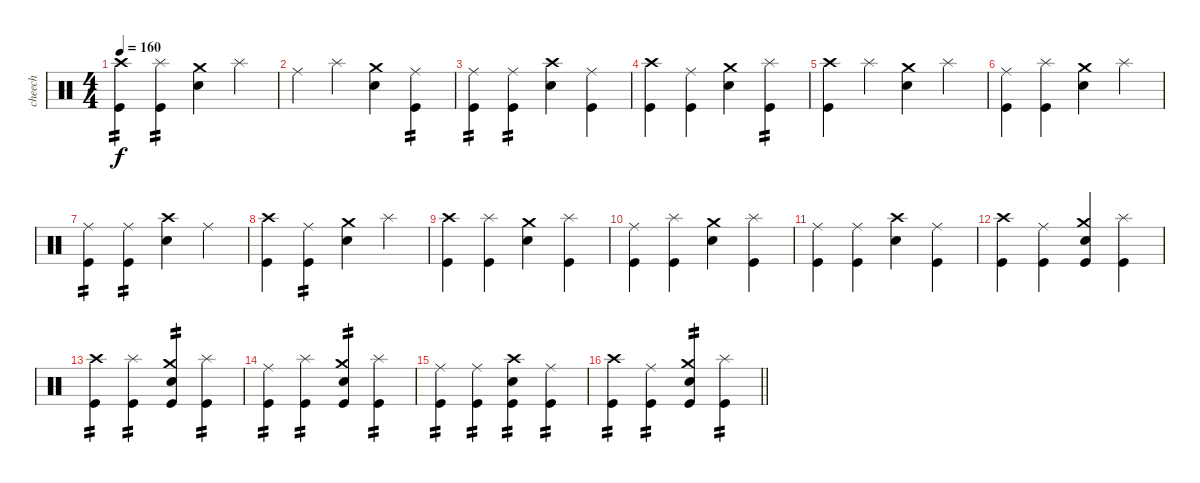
\track ("cheech" "cheech") {instrument percussion}
\staff {score}
\articulation defaults
\ts (4 4)
\tempo 160
\clef neutral
\ks c
("Crash high (hit)" "Kick (hit)").4{tp 2 dy f} ("Splash (hit)" "Kick (hit)").4{tp 2} ("Crash medium (hit)" "Electric Snare (hit)").4 "Splash (hit)".4 |
"Ride (middle)".4 "Splash (hit)".4 ("Crash medium (hit)" "Electric Snare (hit)").4 ("Ride (middle)" "Kick (hit)").4{tp 2} |
("Ride (middle)" "Kick (hit)").4{tp 2} ("Ride (middle)" "Kick (hit)").4{tp 2} ("Crash high (hit)" "Electric Snare (hit)").4 ("Ride (middle)" "Kick (hit)").4 |
("Crash high (hit)" "Kick (hit)").4 ("Ride (middle)" "Kick (hit)").4 ("Crash medium (hit)" "Electric Snare (hit)").4 ("Splash (hit)" "Kick (hit)").4{tp 2} |
("Crash high (hit)" "Kick (hit)").4 "Splash (hit)".4 ("Crash medium (hit)" "Electric Snare (hit)").4 "Splash (hit)".4 |
("Ride (middle)" "Kick (hit)").4 ("Splash (hit)" "Kick (hit)").4 ("Crash medium (hit)" "Electric Snare (hit)").4 "Splash (hit)".4 |
("Ride (middle)" "Kick (hit)").4{tp 2} ("Ride (middle)" "Kick (hit)").4{tp 2} ("Crash high (hit)" "Electric Snare (hit)").4 "Ride (middle)".4 |
("Crash high (hit)" "Kick (hit)").4 ("Ride (middle)" "Kick (hit)").4{tp 2} ("Crash medium (hit)" "Electric Snare (hit)").4 "Splash (hit)".4 |
("Crash high (hit)" "Kick (hit)").4 ("Splash (hit)" "Kick (hit)").4 ("Crash medium (hit)" "Electric Snare (hit)").4 ("Splash (hit)" "Kick (hit)").4 |
("Ride (middle)" "Kick (hit)").4 ("Splash (hit)" "Kick (hit)").4 ("Crash medium (hit)" "Electric Snare (hit)").4 ("Splash (hit)" "Kick (hit)").4 |
("Ride (middle)" "Kick (hit)").4 ("Ride (middle)" "Kick (hit)").4 ("Crash high (hit)" "Electric Snare (hit)").4 ("Ride (middle)" "Kick (hit)").4 |
("Crash high (hit)" "Kick (hit)").4 ("Ride (middle)" "Kick (hit)").4 ("Crash medium (hit)" "Electric Snare (hit)" "Kick (hit)").4 ("Splash (hit)" "Kick (hit)").4 |
("Crash high (hit)" "Kick (hit)").4{tp 2} ("Splash (hit)" "Kick (hit)").4{tp 2} ("Crash medium (hit)" "Electric Snare (hit)" "Kick (hit)").4{tp 2} ("Splash (hit)" "Kick (hit)").4{tp 2} |
("Ride (middle)" "Kick (hit)").4{tp 2} ("Splash (hit)" "Kick (hit)").4{tp 2} ("Crash medium (hit)" "Electric Snare (hit)" "Kick (hit)").4{tp 2} ("Splash (hit)" "Kick (hit)").4{tp 2} |
("Ride (middle)" "Kick (hit)").4{tp 2} ("Ride (middle)" "Kick (hit)").4{tp 2} ("Crash high (hit)" "Electric Snare (hit)" "Kick (hit)").4{tp 2} ("Ride (middle)" "Kick (hit)").4{tp 2} |
\barLineRight lightlight
("Crash high (hit)" "Kick (hit)").4{tp 2} ("Ride (middle)" "Kick (hit)").4{tp 2} ("Crash medium (hit)" "Electric Snare (hit)" "Kick (hit)").4{tp 2} ("Splash (hit)" "Kick (hit)").4{tp 2}
